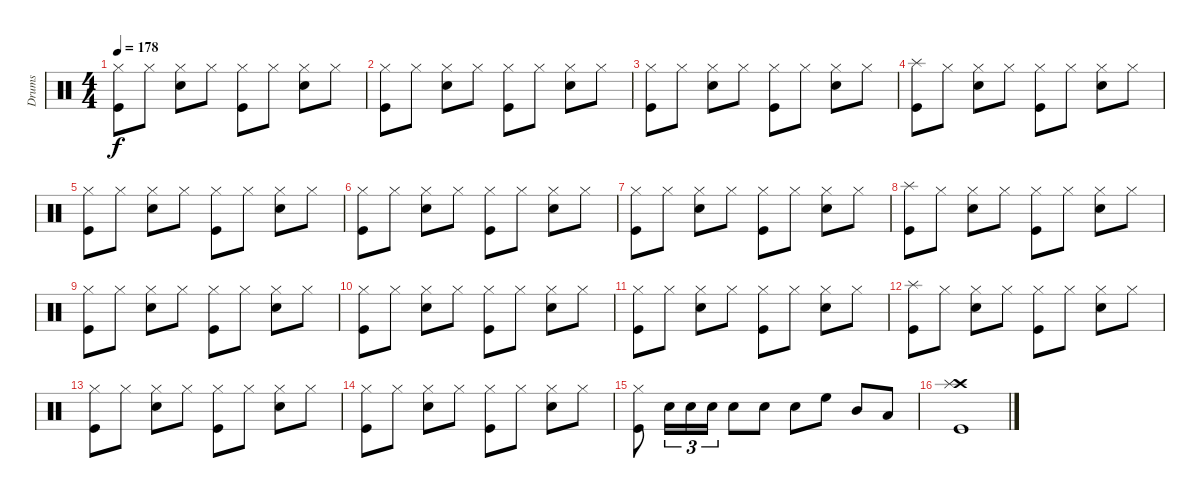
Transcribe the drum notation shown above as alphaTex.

\track ("Drums" "Drums") {instrument percussion}
\staff {score}
\articulation defaults
\ts (4 4)
\tempo 178
\clef neutral
\ks c
("Hi-Hat (closed)" "Kick (hit)").8{dy f} "Hi-Hat (closed)".8 ("Hi-Hat (closed)" "Electric Snare (hit)").8 "Hi-Hat (closed)".8 ("Hi-Hat (closed)" "Kick (hit)").8 "Hi-Hat (closed)".8 ("Hi-Hat (closed)" "Electric Snare (hit)").8 "Hi-Hat (closed)".8 |
("Hi-Hat (closed)" "Kick (hit)").8 "Hi-Hat (closed)".8 ("Hi-Hat (closed)" "Electric Snare (hit)").8 "Hi-Hat (closed)".8 ("Hi-Hat (closed)" "Kick (hit)").8 "Hi-Hat (closed)".8 ("Hi-Hat (closed)" "Electric Snare (hit)").8 "Hi-Hat (closed)".8 |
("Hi-Hat (closed)" "Kick (hit)").8 "Hi-Hat (closed)".8 ("Hi-Hat (closed)" "Electric Snare (hit)").8 "Hi-Hat (closed)".8 ("Hi-Hat (closed)" "Kick (hit)").8 "Hi-Hat (closed)".8 ("Hi-Hat (closed)" "Electric Snare (hit)").8 "Hi-Hat (closed)".8 |
("Splash (hit)" "Kick (hit)").8 "Hi-Hat (closed)".8 ("Hi-Hat (closed)" "Electric Snare (hit)").8 "Hi-Hat (closed)".8 ("Hi-Hat (closed)" "Kick (hit)").8 "Hi-Hat (closed)".8 ("Hi-Hat (closed)" "Electric Snare (hit)").8 "Hi-Hat (closed)".8 |
("Hi-Hat (closed)" "Kick (hit)").8 "Hi-Hat (closed)".8 ("Hi-Hat (closed)" "Electric Snare (hit)").8 "Hi-Hat (closed)".8 ("Hi-Hat (closed)" "Kick (hit)").8 "Hi-Hat (closed)".8 ("Hi-Hat (closed)" "Electric Snare (hit)").8 "Hi-Hat (closed)".8 |
("Hi-Hat (closed)" "Kick (hit)").8 "Hi-Hat (closed)".8 ("Hi-Hat (closed)" "Electric Snare (hit)").8 "Hi-Hat (closed)".8 ("Hi-Hat (closed)" "Kick (hit)").8 "Hi-Hat (closed)".8 ("Hi-Hat (closed)" "Electric Snare (hit)").8 "Hi-Hat (closed)".8 |
("Hi-Hat (closed)" "Kick (hit)").8 "Hi-Hat (closed)".8 ("Hi-Hat (closed)" "Electric Snare (hit)").8 "Hi-Hat (closed)".8 ("Hi-Hat (closed)" "Kick (hit)").8 "Hi-Hat (closed)".8 ("Hi-Hat (closed)" "Electric Snare (hit)").8 "Hi-Hat (closed)".8 |
("Splash (hit)" "Kick (hit)").8 "Hi-Hat (closed)".8 ("Hi-Hat (closed)" "Electric Snare (hit)").8 "Hi-Hat (closed)".8 ("Hi-Hat (closed)" "Kick (hit)").8 "Hi-Hat (closed)".8 ("Hi-Hat (closed)" "Electric Snare (hit)").8 "Hi-Hat (closed)".8 |
("Hi-Hat (closed)" "Kick (hit)").8 "Hi-Hat (closed)".8 ("Hi-Hat (closed)" "Electric Snare (hit)").8 "Hi-Hat (closed)".8 ("Hi-Hat (closed)" "Kick (hit)").8 "Hi-Hat (closed)".8 ("Hi-Hat (closed)" "Electric Snare (hit)").8 "Hi-Hat (closed)".8 |
("Hi-Hat (closed)" "Kick (hit)").8 "Hi-Hat (closed)".8 ("Hi-Hat (closed)" "Electric Snare (hit)").8 "Hi-Hat (closed)".8 ("Hi-Hat (closed)" "Kick (hit)").8 "Hi-Hat (closed)".8 ("Hi-Hat (closed)" "Electric Snare (hit)").8 "Hi-Hat (closed)".8 |
("Hi-Hat (closed)" "Kick (hit)").8 "Hi-Hat (closed)".8 ("Hi-Hat (closed)" "Electric Snare (hit)").8 "Hi-Hat (closed)".8 ("Hi-Hat (closed)" "Kick (hit)").8 "Hi-Hat (closed)".8 ("Hi-Hat (closed)" "Electric Snare (hit)").8 "Hi-Hat (closed)".8 |
("Splash (hit)" "Kick (hit)").8 "Hi-Hat (closed)".8 ("Hi-Hat (closed)" "Electric Snare (hit)").8 "Hi-Hat (closed)".8 ("Hi-Hat (closed)" "Kick (hit)").8 "Hi-Hat (closed)".8 ("Hi-Hat (closed)" "Electric Snare (hit)").8 "Hi-Hat (closed)".8 |
("Hi-Hat (closed)" "Kick (hit)").8 "Hi-Hat (closed)".8 ("Hi-Hat (closed)" "Electric Snare (hit)").8 "Hi-Hat (closed)".8 ("Hi-Hat (closed)" "Kick (hit)").8 "Hi-Hat (closed)".8 ("Hi-Hat (closed)" "Electric Snare (hit)").8 "Hi-Hat (closed)".8 |
("Hi-Hat (closed)" "Kick (hit)").8 "Hi-Hat (closed)".8 ("Hi-Hat (closed)" "Electric Snare (hit)").8 "Hi-Hat (closed)".8 ("Hi-Hat (closed)" "Kick (hit)").8 "Hi-Hat (closed)".8 ("Hi-Hat (closed)" "Electric Snare (hit)").8 "Hi-Hat (closed)".8 |
("Hi-Hat (closed)" "Kick (hit)").8 "Electric Snare (hit)".16{tu (3 2)} "Electric Snare (hit)".16{tu (3 2)} "Electric Snare (hit)".16{tu (3 2)} "Electric Snare (hit)".8 "Electric Snare (hit)".8 "Electric Snare (hit)".8 "High Floor Tom (hit)".8 "Mid Tom (hit)".8 "Low Tom (hit)".8 |
("Crash high (hit)" "Splash (hit)" "Kick (hit)").1
